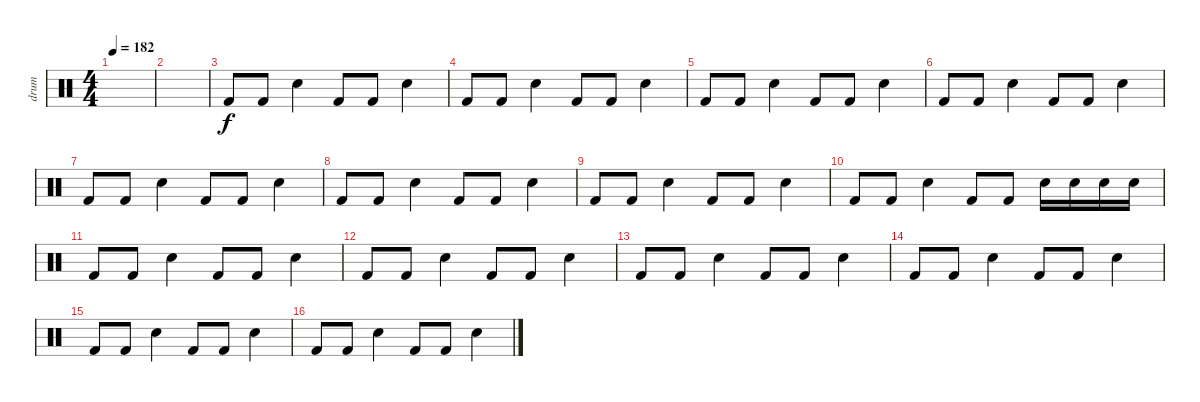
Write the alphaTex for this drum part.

\track ("drum" "drum") {instrument percussion}
\staff {score}
\articulation defaults
\ts (4 4)
\tempo 182
\clef neutral
\ks c
|
|
"Kick (hit) 2".8 "Kick (hit) 2".8 "Electric Snare (hit)".4 "Kick (hit) 2".8 "Kick (hit) 2".8 "Electric Snare (hit)".4 |
"Kick (hit) 2".8 "Kick (hit) 2".8 "Electric Snare (hit)".4 "Kick (hit) 2".8 "Kick (hit) 2".8 "Electric Snare (hit)".4 |
"Kick (hit) 2".8 "Kick (hit) 2".8 "Electric Snare (hit)".4 "Kick (hit) 2".8 "Kick (hit) 2".8 "Electric Snare (hit)".4 |
"Kick (hit) 2".8 "Kick (hit) 2".8 "Electric Snare (hit)".4 "Kick (hit) 2".8 "Kick (hit) 2".8 "Electric Snare (hit)".4 |
"Kick (hit) 2".8 "Kick (hit) 2".8 "Electric Snare (hit)".4 "Kick (hit) 2".8 "Kick (hit) 2".8 "Electric Snare (hit)".4 |
"Kick (hit) 2".8 "Kick (hit) 2".8 "Electric Snare (hit)".4 "Kick (hit) 2".8 "Kick (hit) 2".8 "Electric Snare (hit)".4 |
"Kick (hit) 2".8 "Kick (hit) 2".8 "Electric Snare (hit)".4 "Kick (hit) 2".8 "Kick (hit) 2".8 "Electric Snare (hit)".4 |
"Kick (hit) 2".8 "Kick (hit) 2".8 "Electric Snare (hit)".4 "Kick (hit) 2".8 "Kick (hit) 2".8 "Electric Snare (hit)".16 "Electric Snare (hit)".16 "Electric Snare (hit)".16 "Electric Snare (hit)".16 |
"Kick (hit) 2".8 "Kick (hit) 2".8 "Electric Snare (hit)".4 "Kick (hit) 2".8 "Kick (hit) 2".8 "Electric Snare (hit)".4 |
"Kick (hit) 2".8 "Kick (hit) 2".8 "Electric Snare (hit)".4 "Kick (hit) 2".8 "Kick (hit) 2".8 "Electric Snare (hit)".4 |
"Kick (hit) 2".8 "Kick (hit) 2".8 "Electric Snare (hit)".4 "Kick (hit) 2".8 "Kick (hit) 2".8 "Electric Snare (hit)".4 |
"Kick (hit) 2".8 "Kick (hit) 2".8 "Electric Snare (hit)".4 "Kick (hit) 2".8 "Kick (hit) 2".8 "Electric Snare (hit)".4 |
"Kick (hit) 2".8 "Kick (hit) 2".8 "Electric Snare (hit)".4 "Kick (hit) 2".8 "Kick (hit) 2".8 "Electric Snare (hit)".4 |
"Kick (hit) 2".8 "Kick (hit) 2".8 "Electric Snare (hit)".4 "Kick (hit) 2".8 "Kick (hit) 2".8 "Electric Snare (hit)".4
